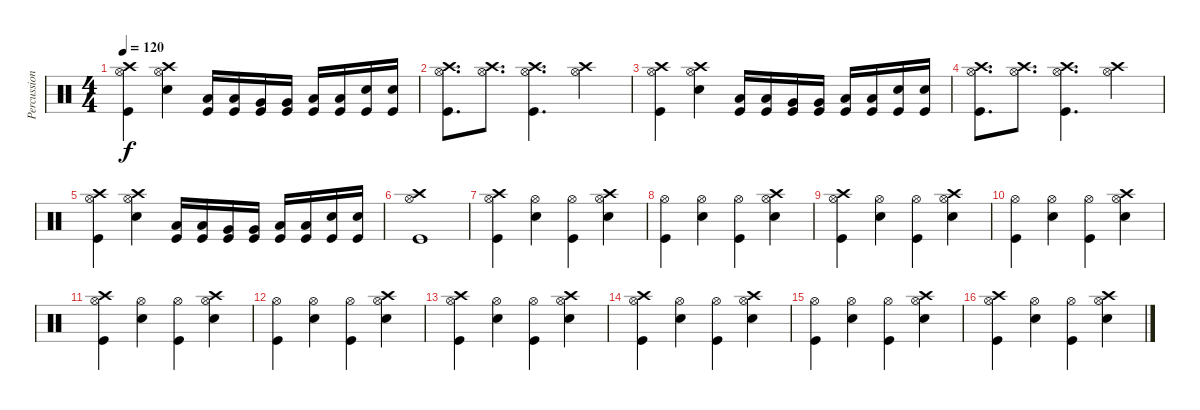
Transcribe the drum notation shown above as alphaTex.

\track ("Percussion" "Percussion") {instrument percussion}
\staff {score}
\articulation defaults
\ts (4 4)
\tempo 120
\clef neutral
\ks c
("Crash high (hit)" "Hi-Hat (open)" "Kick (hit)").4{dy f} ("Crash high (hit)" "Hi-Hat (open)" "Snare (hit) 2").4 ("Low Tom (hit)" "Kick (hit)").16 ("Low Tom (hit)" "Kick (hit)").16 ("Very Low Tom (hit)" "Kick (hit)").16 ("Very Low Tom (hit)" "Kick (hit)").16 ("Low Floor Tom (hit)" "Kick (hit)").16 ("Low Floor Tom (hit)" "Kick (hit)").16 ("Snare (hit) 2" "Kick (hit)").16 ("Snare (hit) 2" "Kick (hit)").16 |
("Crash high (hit)" "Hi-Hat (open)" "Kick (hit)").8{d} ("Crash high (hit)" "Hi-Hat (open)").8{d} ("Crash high (hit)" "Hi-Hat (open)" "Kick (hit)").4{d} ("Crash high (hit)" "Hi-Hat (open)").4 |
("Crash high (hit)" "Hi-Hat (open)" "Kick (hit)").4 ("Crash high (hit)" "Hi-Hat (open)" "Snare (hit) 2").4 ("Low Tom (hit)" "Kick (hit)").16 ("Low Tom (hit)" "Kick (hit)").16 ("Very Low Tom (hit)" "Kick (hit)").16 ("Very Low Tom (hit)" "Kick (hit)").16 ("Low Floor Tom (hit)" "Kick (hit)").16 ("Low Floor Tom (hit)" "Kick (hit)").16 ("Snare (hit) 2" "Kick (hit)").16 ("Snare (hit) 2" "Kick (hit)").16 |
("Crash high (hit)" "Hi-Hat (open)" "Kick (hit)").8{d} ("Crash high (hit)" "Hi-Hat (open)").8{d} ("Crash high (hit)" "Hi-Hat (open)" "Kick (hit)").4{d} ("Crash high (hit)" "Hi-Hat (open)").4 |
("Crash high (hit)" "Hi-Hat (open)" "Kick (hit)").4 ("Crash high (hit)" "Hi-Hat (open)" "Snare (hit) 2").4 ("Low Tom (hit)" "Kick (hit)").16 ("Low Tom (hit)" "Kick (hit)").16 ("Very Low Tom (hit)" "Kick (hit)").16 ("Very Low Tom (hit)" "Kick (hit)").16 ("Low Floor Tom (hit)" "Kick (hit)").16 ("Low Floor Tom (hit)" "Kick (hit)").16 ("Snare (hit) 2" "Kick (hit)").16 ("Snare (hit) 2" "Kick (hit)").16 |
("Crash high (hit)" "Hi-Hat (open)" "Kick (hit)").1 |
("Crash high (hit)" "Hi-Hat (open)" "Kick (hit)").4 ("Hi-Hat (open)" "Snare (hit) 2").4 ("Hi-Hat (open)" "Kick (hit)").4 ("Crash high (hit)" "Hi-Hat (open)" "Snare (hit) 2").4 |
("Hi-Hat (open)" "Kick (hit)").4 ("Hi-Hat (open)" "Snare (hit) 2").4 ("Hi-Hat (open)" "Kick (hit)").4 ("Crash high (hit)" "Hi-Hat (open)" "Snare (hit) 2").4 |
("Crash high (hit)" "Hi-Hat (open)" "Kick (hit)").4 ("Hi-Hat (open)" "Snare (hit) 2").4 ("Hi-Hat (open)" "Kick (hit)").4 ("Crash high (hit)" "Hi-Hat (open)" "Snare (hit) 2").4 |
("Hi-Hat (open)" "Kick (hit)").4 ("Hi-Hat (open)" "Snare (hit) 2").4 ("Hi-Hat (open)" "Kick (hit)").4 ("Crash high (hit)" "Hi-Hat (open)" "Snare (hit) 2").4 |
("Crash high (hit)" "Hi-Hat (open)" "Kick (hit)").4 ("Hi-Hat (open)" "Snare (hit) 2").4 ("Hi-Hat (open)" "Kick (hit)").4 ("Crash high (hit)" "Hi-Hat (open)" "Snare (hit) 2").4 |
("Hi-Hat (open)" "Kick (hit)").4 ("Hi-Hat (open)" "Snare (hit) 2").4 ("Hi-Hat (open)" "Kick (hit)").4 ("Crash high (hit)" "Hi-Hat (open)" "Snare (hit) 2").4 |
("Crash high (hit)" "Hi-Hat (open)" "Kick (hit)").4 ("Hi-Hat (open)" "Snare (hit) 2").4 ("Hi-Hat (open)" "Kick (hit)").4 ("Crash high (hit)" "Hi-Hat (open)" "Snare (hit) 2").4 |
("Crash high (hit)" "Hi-Hat (open)" "Kick (hit)").4 ("Hi-Hat (open)" "Snare (hit) 2").4 ("Hi-Hat (open)" "Kick (hit)").4 ("Crash high (hit)" "Hi-Hat (open)" "Snare (hit) 2").4 |
("Hi-Hat (open)" "Kick (hit)").4 ("Hi-Hat (open)" "Snare (hit) 2").4 ("Hi-Hat (open)" "Kick (hit)").4 ("Crash high (hit)" "Hi-Hat (open)" "Snare (hit) 2").4 |
("Crash high (hit)" "Hi-Hat (open)" "Kick (hit)").4 ("Hi-Hat (open)" "Snare (hit) 2").4 ("Hi-Hat (open)" "Kick (hit)").4 ("Crash high (hit)" "Hi-Hat (open)" "Snare (hit) 2").4
